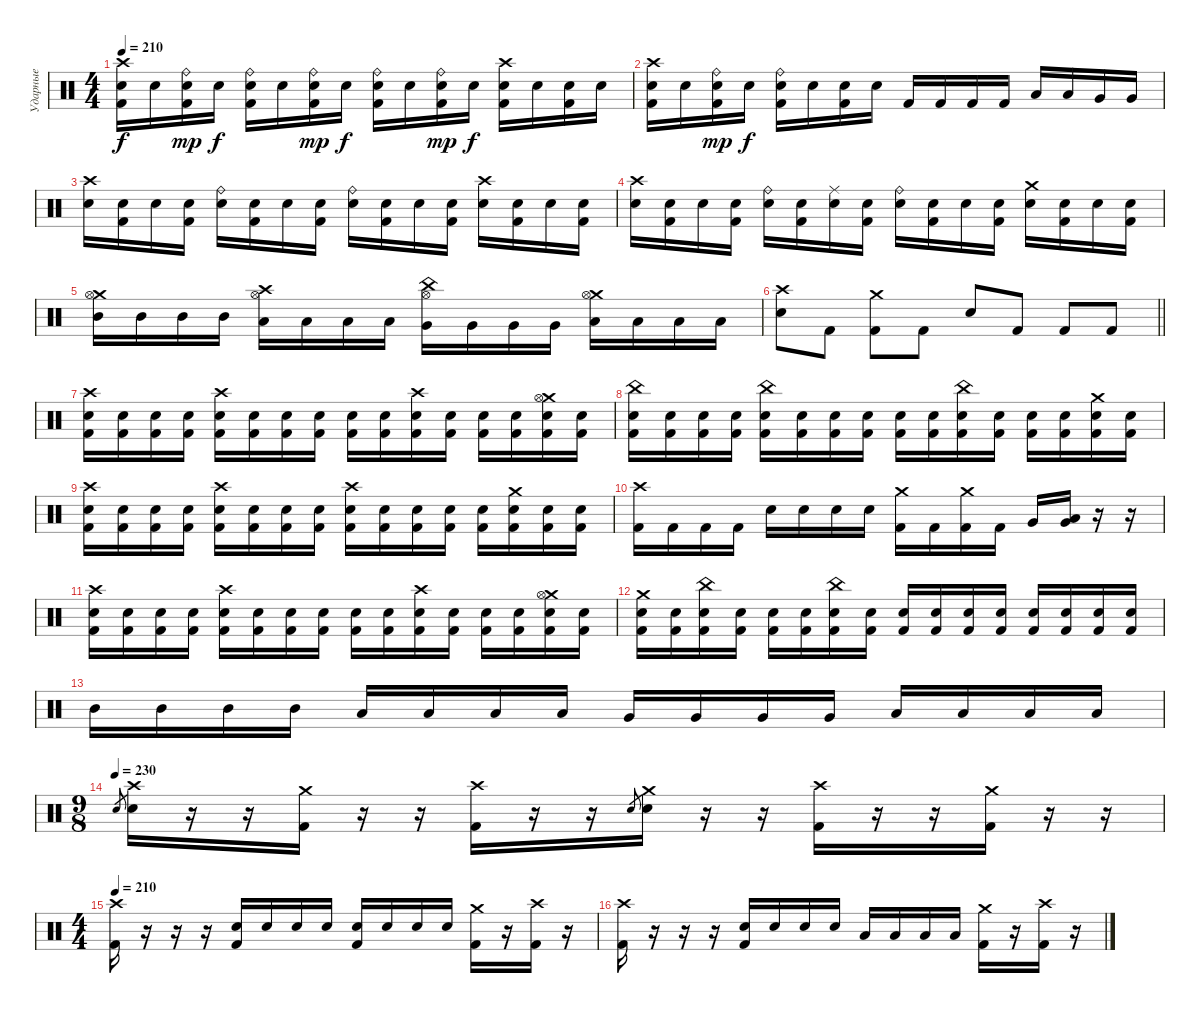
\track ("Ударные" "Ударные") {instrument percussion}
\staff {score}
\articulation defaults
\ts (4 4)
\tempo 210
\clef neutral
\ks c
("Kick (hit) 2" "Electric Snare (hit)" "Crash high (hit)").16{dy f} "Electric Snare (hit)".16 ("Kick (hit) 2" "Electric Snare (hit)" "Ride (bell)").16{dy mp} "Electric Snare (hit)".16{dy f} ("Kick (hit) 2" "Electric Snare (hit)" "Ride (bell)").16 "Electric Snare (hit)".16 ("Kick (hit) 2" "Electric Snare (hit)" "Ride (bell)").16{dy mp} "Electric Snare (hit)".16{dy f} ("Kick (hit) 2" "Electric Snare (hit)" "Ride (bell)").16 "Electric Snare (hit)".16 ("Kick (hit) 2" "Electric Snare (hit)" "Ride (bell)").16{dy mp} "Electric Snare (hit)".16{dy f} ("Kick (hit) 2" "Electric Snare (hit)" "Crash high (hit)").16 "Electric Snare (hit)".16 ("Kick (hit) 2" "Electric Snare (hit)").16 "Electric Snare (hit)".16 |
("Kick (hit) 2" "Electric Snare (hit)" "Crash high (hit)").16 "Electric Snare (hit)".16 ("Kick (hit) 2" "Electric Snare (hit)" "Ride (bell)").16{dy mp} "Electric Snare (hit)".16{dy f} ("Kick (hit) 2" "Electric Snare (hit)" "Ride (bell)").16 "Electric Snare (hit)".16 ("Kick (hit) 2" "Electric Snare (hit)").16 "Electric Snare (hit)".16 "Kick (hit) 2".16 "Kick (hit) 2".16 "Kick (hit) 2".16 "Kick (hit) 2".16 "Low Tom (hit)".16 "Low Tom (hit)".16 "Very Low Tom (hit)".16 "Very Low Tom (hit)".16 |
("Electric Snare (hit)" "Crash high (hit)").16 ("Kick (hit) 2" "Electric Snare (hit)").16 "Electric Snare (hit)".16 ("Kick (hit) 2" "Electric Snare (hit)").16 ("Electric Snare (hit)" "Ride (bell)").16 ("Kick (hit) 2" "Electric Snare (hit)").16 "Electric Snare (hit)".16 ("Kick (hit) 2" "Electric Snare (hit)").16 ("Electric Snare (hit)" "Ride (bell)").16 ("Kick (hit) 2" "Electric Snare (hit)").16 "Electric Snare (hit)".16 ("Kick (hit) 2" "Electric Snare (hit)").16 ("Electric Snare (hit)" "Crash high (hit)").16 ("Kick (hit) 2" "Electric Snare (hit)").16 "Electric Snare (hit)".16 ("Kick (hit) 2" "Electric Snare (hit)").16 |
("Electric Snare (hit)" "Crash high (hit)").16 ("Kick (hit) 2" "Electric Snare (hit)").16 "Electric Snare (hit)".16 ("Kick (hit) 2" "Electric Snare (hit)").16 ("Electric Snare (hit)" "Ride (bell)").16 ("Kick (hit) 2" "Electric Snare (hit)").16 ("Electric Snare (hit)" "Ride (middle)").16 ("Kick (hit) 2" "Electric Snare (hit)").16 ("Electric Snare (hit)" "Ride (bell)").16 ("Kick (hit) 2" "Electric Snare (hit)").16 "Electric Snare (hit)".16 ("Kick (hit) 2" "Electric Snare (hit)").16 ("Electric Snare (hit)" "Crash medium (hit)").16 ("Kick (hit) 2" "Electric Snare (hit)").16 "Electric Snare (hit)".16 ("Kick (hit) 2" "Electric Snare (hit)").16 |
("Mid Tom (hit)" "Crash medium (hit)" "Hi-Hat (open)").16 "Mid Tom (hit)".16 "Mid Tom (hit)".16 "Mid Tom (hit)".16 ("Low Tom (hit)" "Crash high (hit)" "Hi-Hat (open)").16 "Low Tom (hit)".16 "Low Tom (hit)".16 "Low Tom (hit)".16 ("Very Low Tom (hit)" "Hi-Hat (open)" "China (hit)").16 "Very Low Tom (hit)".16 "Very Low Tom (hit)".16 "Very Low Tom (hit)".16 ("Low Tom (hit)" "Crash medium (hit)" "Hi-Hat (open)").16 "Low Tom (hit)".16 "Low Tom (hit)".16 "Low Tom (hit)".16 |
\barLineRight lightlight
("Electric Snare (hit)" "Crash high (hit)").8 "Kick (hit) 2".8 ("Kick (hit) 2" "Crash medium (hit)").8 "Kick (hit) 2".8 "Electric Snare (hit)".8 "Kick (hit) 2".8 "Kick (hit) 2".8 "Kick (hit) 2".8 |
("Kick (hit) 2" "Electric Snare (hit)" "Crash high (hit)").16 ("Kick (hit) 2" "Electric Snare (hit)").16 ("Kick (hit) 2" "Electric Snare (hit)").16 ("Kick (hit) 2" "Electric Snare (hit)").16 ("Kick (hit) 2" "Electric Snare (hit)" "Crash high (hit)").16 ("Kick (hit) 2" "Electric Snare (hit)").16 ("Kick (hit) 2" "Electric Snare (hit)").16 ("Kick (hit) 2" "Electric Snare (hit)").16 ("Kick (hit) 2" "Electric Snare (hit)").16 ("Kick (hit) 2" "Electric Snare (hit)").16 ("Kick (hit) 2" "Electric Snare (hit)" "Crash high (hit)").16 ("Kick (hit) 2" "Electric Snare (hit)").16 ("Kick (hit) 2" "Electric Snare (hit)").16 ("Kick (hit) 2" "Electric Snare (hit)").16 ("Kick (hit) 2" "Electric Snare (hit)" "Crash medium (hit)" "Hi-Hat (open)").16 ("Kick (hit) 2" "Electric Snare (hit)").16 |
("Kick (hit) 2" "Electric Snare (hit)" "China (hit)").16 ("Kick (hit) 2" "Electric Snare (hit)").16 ("Kick (hit) 2" "Electric Snare (hit)").16 ("Kick (hit) 2" "Electric Snare (hit)").16 ("Kick (hit) 2" "Electric Snare (hit)" "China (hit)").16 ("Kick (hit) 2" "Electric Snare (hit)").16 ("Kick (hit) 2" "Electric Snare (hit)").16 ("Kick (hit) 2" "Electric Snare (hit)").16 ("Kick (hit) 2" "Electric Snare (hit)").16 ("Kick (hit) 2" "Electric Snare (hit)").16 ("Kick (hit) 2" "Electric Snare (hit)" "China (hit)").16 ("Kick (hit) 2" "Electric Snare (hit)").16 ("Kick (hit) 2" "Electric Snare (hit)").16 ("Kick (hit) 2" "Electric Snare (hit)").16 ("Kick (hit) 2" "Electric Snare (hit)" "Crash medium (hit)").16 ("Kick (hit) 2" "Electric Snare (hit)").16 |
("Kick (hit) 2" "Electric Snare (hit)" "Crash high (hit)").16 ("Kick (hit) 2" "Electric Snare (hit)").16 ("Kick (hit) 2" "Electric Snare (hit)").16 ("Kick (hit) 2" "Electric Snare (hit)").16 ("Kick (hit) 2" "Electric Snare (hit)" "Crash high (hit)").16 ("Kick (hit) 2" "Electric Snare (hit)").16 ("Kick (hit) 2" "Electric Snare (hit)").16 ("Kick (hit) 2" "Electric Snare (hit)").16 ("Kick (hit) 2" "Electric Snare (hit)" "Crash high (hit)").16 ("Kick (hit) 2" "Electric Snare (hit)").16 ("Kick (hit) 2" "Electric Snare (hit)").16 ("Kick (hit) 2" "Electric Snare (hit)").16 ("Kick (hit) 2" "Electric Snare (hit)").16 ("Kick (hit) 2" "Electric Snare (hit)" "Crash medium (hit)").16 ("Kick (hit) 2" "Electric Snare (hit)").16 ("Kick (hit) 2" "Electric Snare (hit)").16 |
("Kick (hit) 2" "Crash high (hit)").16 "Kick (hit) 2".16 "Kick (hit) 2".16 "Kick (hit) 2".16 "Electric Snare (hit)".16 "Electric Snare (hit)".16 "Electric Snare (hit)".16 "Electric Snare (hit)".16 ("Kick (hit) 2" "Crash medium (hit)").16 "Kick (hit) 2".16 ("Kick (hit) 2" "Crash medium (hit)").16 "Kick (hit) 2".16 "Very Low Tom (hit)".16 ("Very Low Tom (hit)" "Low Floor Tom (hit)").16 r.16 r.16 |
("Kick (hit) 2" "Electric Snare (hit)" "Crash high (hit)").16 ("Kick (hit) 2" "Electric Snare (hit)").16 ("Kick (hit) 2" "Electric Snare (hit)").16 ("Kick (hit) 2" "Electric Snare (hit)").16 ("Kick (hit) 2" "Electric Snare (hit)" "Crash high (hit)").16 ("Kick (hit) 2" "Electric Snare (hit)").16 ("Kick (hit) 2" "Electric Snare (hit)").16 ("Kick (hit) 2" "Electric Snare (hit)").16 ("Kick (hit) 2" "Electric Snare (hit)").16 ("Kick (hit) 2" "Electric Snare (hit)").16 ("Kick (hit) 2" "Electric Snare (hit)" "Crash high (hit)").16 ("Kick (hit) 2" "Electric Snare (hit)").16 ("Kick (hit) 2" "Electric Snare (hit)").16 ("Kick (hit) 2" "Electric Snare (hit)").16 ("Kick (hit) 2" "Electric Snare (hit)" "Crash medium (hit)" "Hi-Hat (open)").16 ("Kick (hit) 2" "Electric Snare (hit)").16 |
("Kick (hit) 2" "Electric Snare (hit)" "Crash medium (hit)").16 ("Kick (hit) 2" "Electric Snare (hit)").16 ("Kick (hit) 2" "Electric Snare (hit)" "China (hit)").16 ("Kick (hit) 2" "Electric Snare (hit)").16 ("Kick (hit) 2" "Electric Snare (hit)").16 ("Kick (hit) 2" "Electric Snare (hit)").16 ("Kick (hit) 2" "Electric Snare (hit)" "China (hit)").16 ("Kick (hit) 2" "Electric Snare (hit)").16 ("Kick (hit) 2" "Electric Snare (hit)").16 ("Kick (hit) 2" "Electric Snare (hit)").16 ("Kick (hit) 2" "Electric Snare (hit)").16 ("Kick (hit) 2" "Electric Snare (hit)").16 ("Kick (hit) 2" "Electric Snare (hit)").16 ("Kick (hit) 2" "Electric Snare (hit)").16 ("Kick (hit) 2" "Electric Snare (hit)").16 ("Kick (hit) 2" "Electric Snare (hit)").16 |
"Mid Tom (hit)".16 "Mid Tom (hit)".16 "Mid Tom (hit)".16 "Mid Tom (hit)".16 "Low Tom (hit)".16 "Low Tom (hit)".16 "Low Tom (hit)".16 "Low Tom (hit)".16 "Very Low Tom (hit)".16 "Very Low Tom (hit)".16 "Very Low Tom (hit)".16 "Very Low Tom (hit)".16 "Low Tom (hit)".16 "Low Tom (hit)".16 "Low Tom (hit)".16 "Low Tom (hit)".16 |
\ts (9 8)
\tempo (230)
"Electric Snare (hit)".8{gr} ("Electric Snare (hit)" "Crash high (hit)").16 r.16 r.16 ("Kick (hit) 2" "Crash medium (hit)").16 r.16 r.16 ("Kick (hit) 2" "Crash high (hit)").16 r.16 r.16 "Electric Snare (hit)".8{gr} ("Electric Snare (hit)" "Crash medium (hit)").16 r.16 r.16 ("Kick (hit) 2" "Crash high (hit)").16 r.16 r.16 ("Kick (hit) 2" "Crash medium (hit)").16 r.16 r.16 |
\ts (4 4)
\tempo 210
("Kick (hit) 2" "Crash high (hit)").16 r.16 r.16 r.16 ("Electric Snare (hit)" "Kick (hit) 2").16 "Electric Snare (hit)".16 "Electric Snare (hit)".16 "Electric Snare (hit)".16 ("Electric Snare (hit)" "Kick (hit) 2").16 "Electric Snare (hit)".16 "Electric Snare (hit)".16 "Electric Snare (hit)".16 ("Kick (hit) 2" "Crash medium (hit)").16 r.16 ("Kick (hit) 2" "Crash high (hit)").16 r.16 |
("Kick (hit) 2" "Crash high (hit)").16 r.16 r.16 r.16 ("Electric Snare (hit)" "Kick (hit) 2").16 "Electric Snare (hit)".16 "Electric Snare (hit)".16 "Electric Snare (hit)".16 "Low Tom (hit)".16 "Low Tom (hit)".16 "Low Tom (hit)".16 "Low Tom (hit)".16 ("Kick (hit) 2" "Crash medium (hit)").16 r.16 ("Kick (hit) 2" "Crash high (hit)").16 r.16
